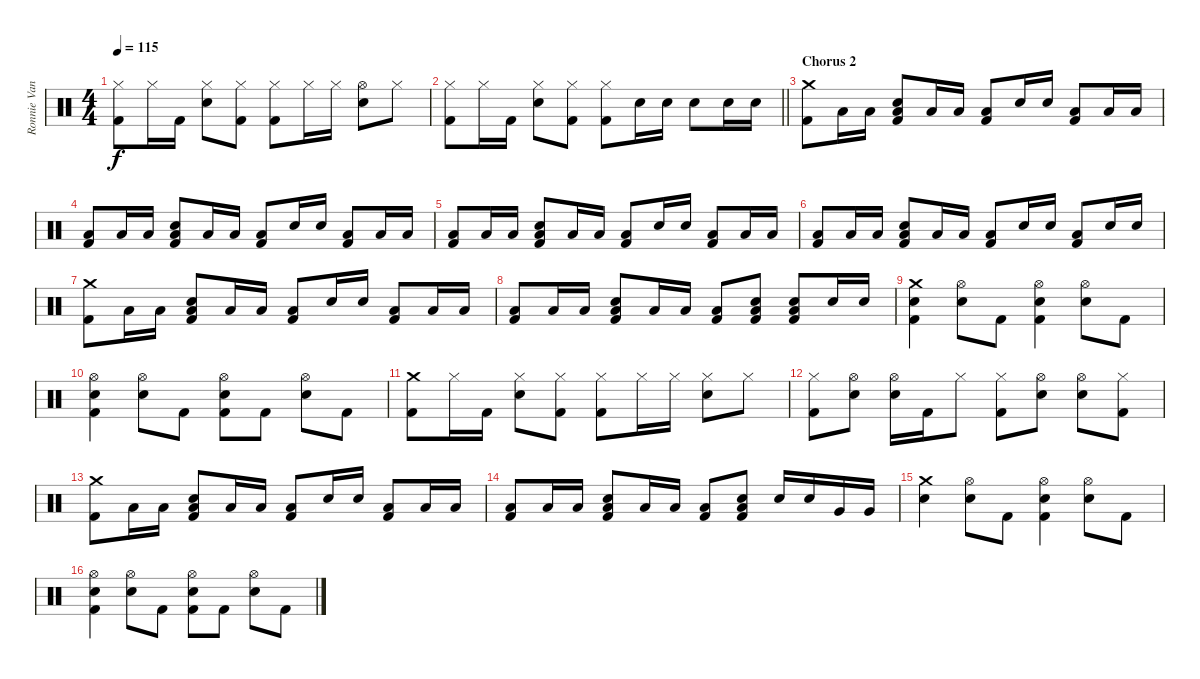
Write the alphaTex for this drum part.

\track ("Ronnie Vannucci Jr. (Drums)" "Ronnie Van") {instrument percussion}
\staff {score}
\articulation defaults
\ts (4 4)
\tempo 115
\clef neutral
\ks c
("Hi-Hat (closed)" "Kick (hit) 2").8{dy f} "Hi-Hat (closed)".16 "Kick (hit) 2".16 ("Hi-Hat (closed)" "Electric Snare (hit)").8 ("Hi-Hat (closed)" "Kick (hit) 2").8 ("Hi-Hat (closed)" "Kick (hit) 2").8 "Hi-Hat (closed)".16 "Hi-Hat (closed)".16 ("Hi-Hat (open)" "Electric Snare (hit)").8 "Hi-Hat (closed)".8 |
\barLineRight lightlight
("Hi-Hat (closed)" "Kick (hit) 2").8 "Hi-Hat (closed)".16 "Kick (hit) 2".16 ("Hi-Hat (closed)" "Electric Snare (hit)").8 ("Hi-Hat (closed)" "Kick (hit) 2").8 ("Hi-Hat (closed)" "Kick (hit) 2").8 "Electric Snare (hit)".16 "Electric Snare (hit)".16 "Electric Snare (hit)".8 "Electric Snare (hit)".16 "Electric Snare (hit)".16 |
\section ("" "Chorus 2")
("Crash medium (hit)" "Kick (hit) 2").8 "Low Floor Tom (hit)".16 "Low Floor Tom (hit)".16 ("Low Floor Tom (hit)" "Electric Snare (hit)" "Kick (hit) 2").8 "Low Floor Tom (hit)".16 "Low Floor Tom (hit)".16 ("Low Floor Tom (hit)" "Kick (hit) 2").8 "Electric Snare (hit)".16 "Electric Snare (hit)".16 ("Low Floor Tom (hit)" "Kick (hit) 2").8 "Low Floor Tom (hit)".16 "Low Floor Tom (hit)".16 |
("Low Floor Tom (hit)" "Kick (hit) 2").8 "Low Floor Tom (hit)".16 "Low Floor Tom (hit)".16 ("Low Floor Tom (hit)" "Electric Snare (hit)" "Kick (hit) 2").8 "Low Floor Tom (hit)".16 "Low Floor Tom (hit)".16 ("Low Floor Tom (hit)" "Kick (hit) 2").8 "Electric Snare (hit)".16 "Electric Snare (hit)".16 ("Low Floor Tom (hit)" "Kick (hit) 2").8 "Low Floor Tom (hit)".16 "Low Floor Tom (hit)".16 |
("Low Floor Tom (hit)" "Kick (hit) 2").8 "Low Floor Tom (hit)".16 "Low Floor Tom (hit)".16 ("Low Floor Tom (hit)" "Electric Snare (hit)" "Kick (hit) 2").8 "Low Floor Tom (hit)".16 "Low Floor Tom (hit)".16 ("Low Floor Tom (hit)" "Kick (hit) 2").8 "Electric Snare (hit)".16 "Electric Snare (hit)".16 ("Low Floor Tom (hit)" "Kick (hit) 2").8 "Low Floor Tom (hit)".16 "Low Floor Tom (hit)".16 |
("Low Floor Tom (hit)" "Kick (hit) 2").8 "Low Floor Tom (hit)".16 "Low Floor Tom (hit)".16 ("Low Floor Tom (hit)" "Electric Snare (hit)" "Kick (hit) 2").8 "Low Floor Tom (hit)".16 "Low Floor Tom (hit)".16 ("Low Floor Tom (hit)" "Kick (hit) 2").8 "Electric Snare (hit)".16 "Electric Snare (hit)".16 ("Low Floor Tom (hit)" "Kick (hit) 2").8 "Electric Snare (hit)".16 "Electric Snare (hit)".16 |
("Crash medium (hit)" "Kick (hit) 2").8 "Low Floor Tom (hit)".16 "Low Floor Tom (hit)".16 ("Low Floor Tom (hit)" "Electric Snare (hit)" "Kick (hit) 2").8 "Low Floor Tom (hit)".16 "Low Floor Tom (hit)".16 ("Low Floor Tom (hit)" "Kick (hit) 2").8 "Electric Snare (hit)".16 "Electric Snare (hit)".16 ("Low Floor Tom (hit)" "Kick (hit) 2").8 "Low Floor Tom (hit)".16 "Low Floor Tom (hit)".16 |
("Low Floor Tom (hit)" "Kick (hit) 2").8 "Low Floor Tom (hit)".16 "Low Floor Tom (hit)".16 ("Low Floor Tom (hit)" "Electric Snare (hit)" "Kick (hit) 2").8 "Low Floor Tom (hit)".16 "Low Floor Tom (hit)".16 ("Low Floor Tom (hit)" "Kick (hit) 2").8 ("Low Floor Tom (hit)" "Electric Snare (hit)" "Kick (hit) 2").8 ("Low Floor Tom (hit)" "Electric Snare (hit)" "Kick (hit) 2").8 "Electric Snare (hit)".16 "Electric Snare (hit)".16 |
("Crash medium (hit)" "Electric Snare (hit)" "Kick (hit) 2").4 ("Hi-Hat (open)" "Electric Snare (hit)").8 "Kick (hit) 2".8 ("Hi-Hat (open)" "Electric Snare (hit)" "Kick (hit) 2").4 ("Hi-Hat (open)" "Electric Snare (hit)").8 "Kick (hit) 2".8 |
("Hi-Hat (open)" "Electric Snare (hit)" "Kick (hit) 2").4 ("Hi-Hat (open)" "Electric Snare (hit)").8 "Kick (hit) 2".8 ("Hi-Hat (open)" "Electric Snare (hit)" "Kick (hit) 2").8 "Kick (hit) 2".8 ("Hi-Hat (open)" "Electric Snare (hit)").8 "Kick (hit) 2".8 |
("Crash medium (hit)" "Kick (hit) 2").8 "Hi-Hat (closed)".16 "Kick (hit) 2".16 ("Hi-Hat (closed)" "Electric Snare (hit)").8 ("Hi-Hat (closed)" "Kick (hit) 2").8 ("Hi-Hat (closed)" "Kick (hit) 2").8 "Hi-Hat (closed)".16 "Hi-Hat (closed)".16 ("Hi-Hat (closed)" "Electric Snare (hit)").8 "Hi-Hat (closed)".8 |
("Hi-Hat (closed)" "Kick (hit) 2").8 ("Hi-Hat (open)" "Electric Snare (hit)").8 ("Hi-Hat (open)" "Electric Snare (hit)").16 "Kick (hit) 2".16 "Hi-Hat (closed)".8 ("Hi-Hat (closed)" "Kick (hit) 2").8 ("Hi-Hat (open)" "Electric Snare (hit)").8 ("Hi-Hat (open)" "Electric Snare (hit)").8 ("Hi-Hat (closed)" "Kick (hit) 2").8 |
("Crash medium (hit)" "Kick (hit) 2").8 "Low Floor Tom (hit)".16 "Low Floor Tom (hit)".16 ("Low Floor Tom (hit)" "Electric Snare (hit)" "Kick (hit) 2").8 "Low Floor Tom (hit)".16 "Low Floor Tom (hit)".16 ("Low Floor Tom (hit)" "Kick (hit) 2").8 "Electric Snare (hit)".16 "Electric Snare (hit)".16 ("Low Floor Tom (hit)" "Kick (hit) 2").8 "Low Floor Tom (hit)".16 "Low Floor Tom (hit)".16 |
("Low Floor Tom (hit)" "Kick (hit) 2").8 "Low Floor Tom (hit)".16 "Low Floor Tom (hit)".16 ("Low Floor Tom (hit)" "Electric Snare (hit)" "Kick (hit) 2").8 "Low Floor Tom (hit)".16 "Low Floor Tom (hit)".16 ("Low Floor Tom (hit)" "Kick (hit) 2").8 ("Low Floor Tom (hit)" "Electric Snare (hit)" "Kick (hit) 2").8 "Electric Snare (hit)".16 "Electric Snare (hit)".16 "Very Low Tom (hit)".16 "Very Low Tom (hit)".16 |
("Crash medium (hit)" "Electric Snare (hit)").4 ("Hi-Hat (open)" "Electric Snare (hit)").8 "Kick (hit) 2".8 ("Hi-Hat (open)" "Electric Snare (hit)" "Kick (hit) 2").4 ("Hi-Hat (open)" "Electric Snare (hit)").8 "Kick (hit) 2".8 |
("Hi-Hat (open)" "Electric Snare (hit)" "Kick (hit) 2").4 ("Hi-Hat (open)" "Electric Snare (hit)").8 "Kick (hit) 2".8 ("Hi-Hat (open)" "Electric Snare (hit)" "Kick (hit) 2").8 "Kick (hit) 2".8 ("Hi-Hat (open)" "Electric Snare (hit)").8 "Kick (hit) 2".8
